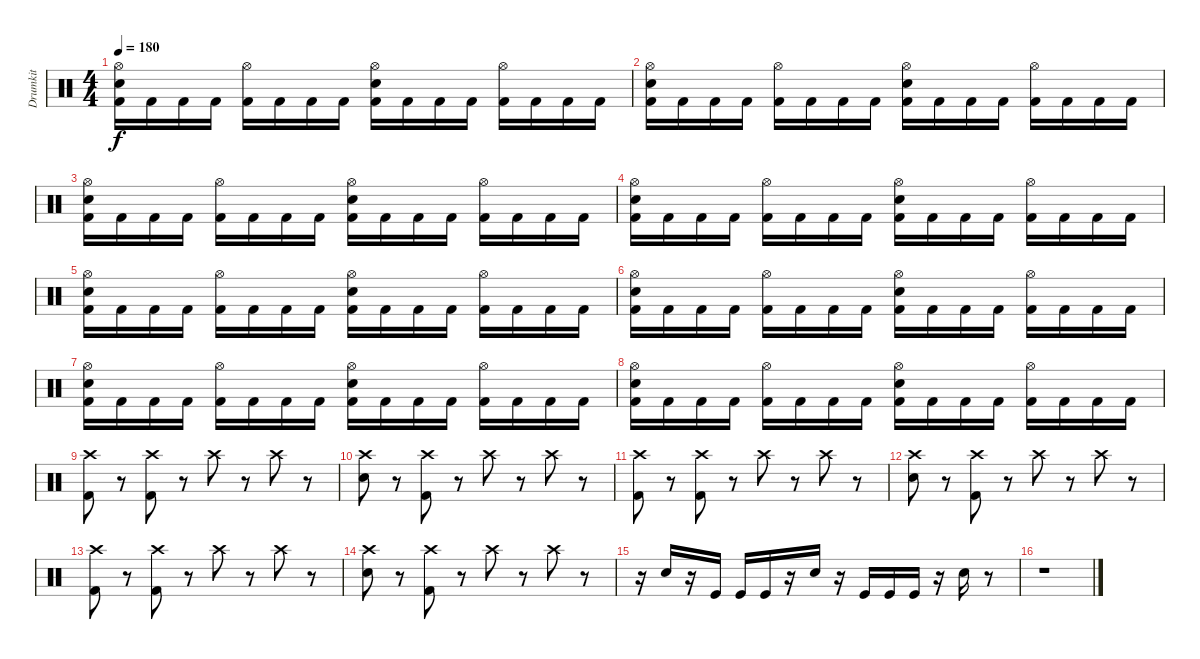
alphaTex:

\track ("Drumkit" "Drumkit") {instrument percussion}
\staff {score}
\articulation defaults
\ts (4 4)
\tempo 180
\clef neutral
\ks c
("Hi-Hat (open)" "Snare (hit) 2" "Kick (hit) 2").16{dy f} "Kick (hit) 2".16 "Kick (hit) 2".16 "Kick (hit) 2".16 ("Hi-Hat (open)" "Kick (hit) 2").16 "Kick (hit) 2".16 "Kick (hit) 2".16 "Kick (hit) 2".16 ("Hi-Hat (open)" "Snare (hit) 2" "Kick (hit) 2").16 "Kick (hit) 2".16 "Kick (hit) 2".16 "Kick (hit) 2".16 ("Hi-Hat (open)" "Kick (hit) 2").16 "Kick (hit) 2".16 "Kick (hit) 2".16 "Kick (hit) 2".16 |
("Hi-Hat (open)" "Snare (hit) 2" "Kick (hit) 2").16 "Kick (hit) 2".16 "Kick (hit) 2".16 "Kick (hit) 2".16 ("Hi-Hat (open)" "Kick (hit) 2").16 "Kick (hit) 2".16 "Kick (hit) 2".16 "Kick (hit) 2".16 ("Hi-Hat (open)" "Snare (hit) 2" "Kick (hit) 2").16 "Kick (hit) 2".16 "Kick (hit) 2".16 "Kick (hit) 2".16 ("Hi-Hat (open)" "Kick (hit) 2").16 "Kick (hit) 2".16 "Kick (hit) 2".16 "Kick (hit) 2".16 |
("Hi-Hat (open)" "Snare (hit) 2" "Kick (hit) 2").16 "Kick (hit) 2".16 "Kick (hit) 2".16 "Kick (hit) 2".16 ("Hi-Hat (open)" "Kick (hit) 2").16 "Kick (hit) 2".16 "Kick (hit) 2".16 "Kick (hit) 2".16 ("Hi-Hat (open)" "Snare (hit) 2" "Kick (hit) 2").16 "Kick (hit) 2".16 "Kick (hit) 2".16 "Kick (hit) 2".16 ("Hi-Hat (open)" "Kick (hit) 2").16 "Kick (hit) 2".16 "Kick (hit) 2".16 "Kick (hit) 2".16 |
("Hi-Hat (open)" "Snare (hit) 2" "Kick (hit) 2").16 "Kick (hit) 2".16 "Kick (hit) 2".16 "Kick (hit) 2".16 ("Hi-Hat (open)" "Kick (hit) 2").16 "Kick (hit) 2".16 "Kick (hit) 2".16 "Kick (hit) 2".16 ("Hi-Hat (open)" "Snare (hit) 2" "Kick (hit) 2").16 "Kick (hit) 2".16 "Kick (hit) 2".16 "Kick (hit) 2".16 ("Hi-Hat (open)" "Kick (hit) 2").16 "Kick (hit) 2".16 "Kick (hit) 2".16 "Kick (hit) 2".16 |
("Hi-Hat (open)" "Snare (hit) 2" "Kick (hit) 2").16 "Kick (hit) 2".16 "Kick (hit) 2".16 "Kick (hit) 2".16 ("Hi-Hat (open)" "Kick (hit) 2").16 "Kick (hit) 2".16 "Kick (hit) 2".16 "Kick (hit) 2".16 ("Hi-Hat (open)" "Snare (hit) 2" "Kick (hit) 2").16 "Kick (hit) 2".16 "Kick (hit) 2".16 "Kick (hit) 2".16 ("Hi-Hat (open)" "Kick (hit) 2").16 "Kick (hit) 2".16 "Kick (hit) 2".16 "Kick (hit) 2".16 |
("Hi-Hat (open)" "Snare (hit) 2" "Kick (hit) 2").16 "Kick (hit) 2".16 "Kick (hit) 2".16 "Kick (hit) 2".16 ("Hi-Hat (open)" "Kick (hit) 2").16 "Kick (hit) 2".16 "Kick (hit) 2".16 "Kick (hit) 2".16 ("Hi-Hat (open)" "Snare (hit) 2" "Kick (hit) 2").16 "Kick (hit) 2".16 "Kick (hit) 2".16 "Kick (hit) 2".16 ("Hi-Hat (open)" "Kick (hit) 2").16 "Kick (hit) 2".16 "Kick (hit) 2".16 "Kick (hit) 2".16 |
("Hi-Hat (open)" "Snare (hit) 2" "Kick (hit) 2").16 "Kick (hit) 2".16 "Kick (hit) 2".16 "Kick (hit) 2".16 ("Hi-Hat (open)" "Kick (hit) 2").16 "Kick (hit) 2".16 "Kick (hit) 2".16 "Kick (hit) 2".16 ("Hi-Hat (open)" "Snare (hit) 2" "Kick (hit) 2").16 "Kick (hit) 2".16 "Kick (hit) 2".16 "Kick (hit) 2".16 ("Hi-Hat (open)" "Kick (hit) 2").16 "Kick (hit) 2".16 "Kick (hit) 2".16 "Kick (hit) 2".16 |
("Hi-Hat (open)" "Snare (hit) 2" "Kick (hit) 2").16 "Kick (hit) 2".16 "Kick (hit) 2".16 "Kick (hit) 2".16 ("Hi-Hat (open)" "Kick (hit) 2").16 "Kick (hit) 2".16 "Kick (hit) 2".16 "Kick (hit) 2".16 ("Hi-Hat (open)" "Snare (hit) 2" "Kick (hit) 2").16 "Kick (hit) 2".16 "Kick (hit) 2".16 "Kick (hit) 2".16 ("Hi-Hat (open)" "Kick (hit) 2").16 "Kick (hit) 2".16 "Kick (hit) 2".16 "Kick (hit) 2".16 |
("Crash high (hit)" "Kick (hit) 2").8 r.8 ("Crash high (hit)" "Kick (hit) 2").8 r.8 "Crash high (hit)".8 r.8 "Crash high (hit)".8 r.8 |
("Crash high (hit)" "Snare (hit) 2").8 r.8 ("Crash high (hit)" "Kick (hit) 2").8 r.8 "Crash high (hit)".8 r.8 "Crash high (hit)".8 r.8 |
("Crash high (hit)" "Kick (hit) 2").8 r.8 ("Crash high (hit)" "Kick (hit) 2").8 r.8 "Crash high (hit)".8 r.8 "Crash high (hit)".8 r.8 |
("Crash high (hit)" "Snare (hit) 2").8 r.8 ("Crash high (hit)" "Kick (hit) 2").8 r.8 "Crash high (hit)".8 r.8 "Crash high (hit)".8 r.8 |
("Crash high (hit)" "Kick (hit) 2").8 r.8 ("Crash high (hit)" "Kick (hit) 2").8 r.8 "Crash high (hit)".8 r.8 "Crash high (hit)".8 r.8 |
("Crash high (hit)" "Snare (hit) 2").8 r.8 ("Crash high (hit)" "Kick (hit) 2").8 r.8 "Crash high (hit)".8 r.8 "Crash high (hit)".8 r.8 |
r.16 "Snare (hit) 2".16 r.16 "Kick (hit)".16 "Kick (hit)".16 "Kick (hit)".16 r.16 "Snare (hit) 2".16 r.16 "Kick (hit)".16 "Kick (hit)".16 "Kick (hit)".16 r.16 "Snare (hit) 2".16 r.8 |
r.1
